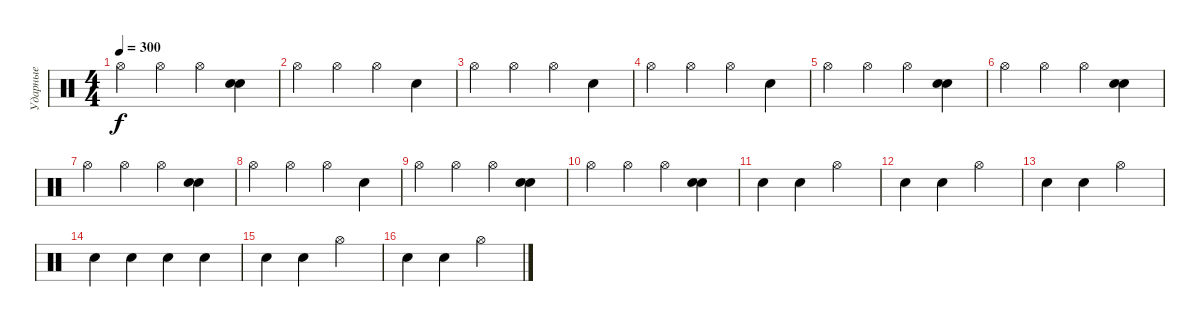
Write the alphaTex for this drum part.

\track ("Ударные" "Ударные") {instrument percussion}
\staff {score}
\articulation defaults
\ts (4 4)
\tempo 300
\clef neutral
\ks c "Hi-Hat (open)".4{dy f} "Hi-Hat (open)".4 "Hi-Hat (open)".4
("Electric Snare (hit)" "Electric Snare (hit)").4 |
"Hi-Hat (open)".4 "Hi-Hat (open)".4 "Hi-Hat (open)".4 "Electric Snare (hit)".4 |
"Hi-Hat (open)".4 "Hi-Hat (open)".4 "Hi-Hat (open)".4 "Electric Snare (hit)".4 |
"Hi-Hat (open)".4 "Hi-Hat (open)".4 "Hi-Hat (open)".4 "Electric Snare (hit)".4 |
"Hi-Hat (open)".4 "Hi-Hat (open)".4 "Hi-Hat (open)".4 ("Electric Snare (hit)" "Electric Snare (hit)").4 |
"Hi-Hat (open)".4 "Hi-Hat (open)".4 "Hi-Hat (open)".4 ("Electric Snare (hit)" "Electric Snare (hit)").4 |
"Hi-Hat (open)".4 "Hi-Hat (open)".4 "Hi-Hat (open)".4 ("Electric Snare (hit)" "Electric Snare (hit)").4 |
"Hi-Hat (open)".4 "Hi-Hat (open)".4 "Hi-Hat (open)".4 "Electric Snare (hit)".4 |
"Hi-Hat (open)".4 "Hi-Hat (open)".4 "Hi-Hat (open)".4 ("Electric Snare (hit)" "Electric Snare (hit)").4 |
"Hi-Hat (open)".4 "Hi-Hat (open)".4 "Hi-Hat (open)".4 ("Electric Snare (hit)" "Electric Snare (hit)").4 |
"Electric Snare (hit)".4 "Electric Snare (hit)".4 "Hi-Hat (open)".2 |
"Electric Snare (hit)".4 "Electric Snare (hit)".4 "Hi-Hat (open)".2 |
"Electric Snare (hit)".4 "Electric Snare (hit)".4 "Hi-Hat (open)".2 |
"Electric Snare (hit)".4 "Electric Snare (hit)".4 "Electric Snare (hit)".4 "Electric Snare (hit)".4 |
"Electric Snare (hit)".4 "Electric Snare (hit)".4 "Hi-Hat (open)".2 |
"Electric Snare (hit)".4 "Electric Snare (hit)".4 "Hi-Hat (open)".2
